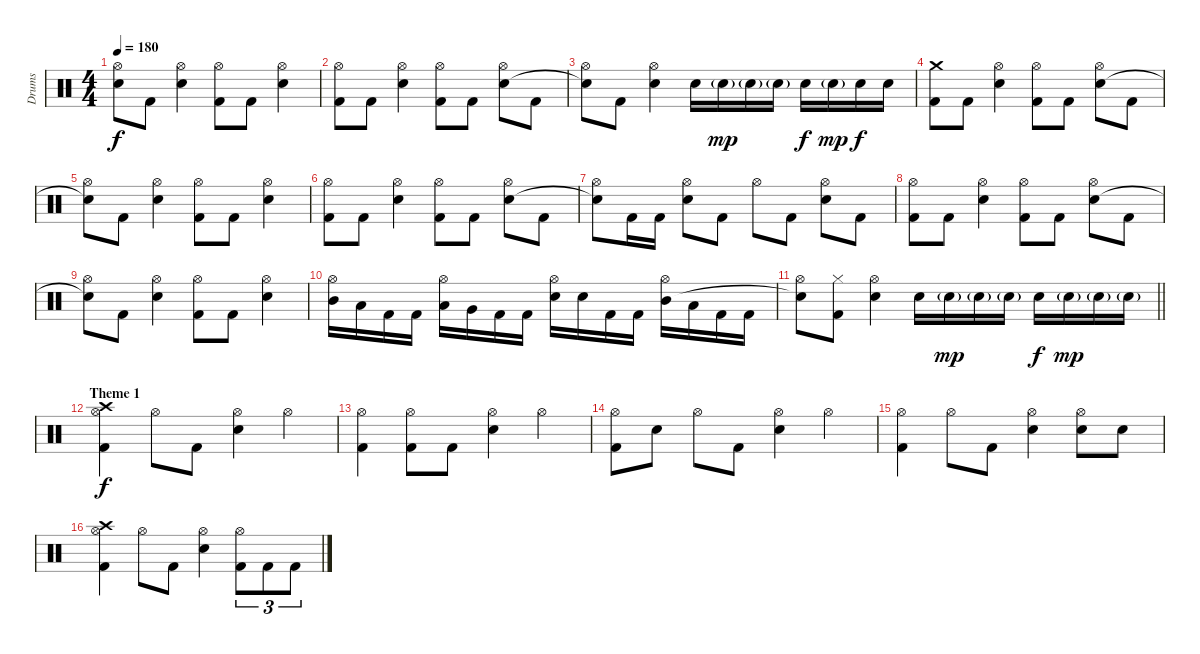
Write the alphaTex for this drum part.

\track ("Drums" "Drums") {instrument percussion}
\staff {score}
\articulation defaults
\ts (4 4)
\tempo 180
\clef neutral
\ks c
("Hi-Hat (open)" "Snare (hit)"{t}).8{dy f} "Kick (hit) 2".8 ("Hi-Hat (open)" "Snare (hit) 2").4 ("Hi-Hat (open)" "Kick (hit) 2").8 "Kick (hit) 2".8 ("Hi-Hat (open)" "Snare (hit) 2").4 |
("Hi-Hat (open)" "Kick (hit) 2").8 "Kick (hit) 2".8 ("Hi-Hat (open)" "Snare (hit) 2").4 ("Hi-Hat (open)" "Kick (hit) 2").8 "Kick (hit) 2".8 ("Hi-Hat (open)" "Snare (hit) 2").8 "Kick (hit) 2".8 |
("Hi-Hat (open)" "Snare (hit)"{t}).8 "Kick (hit) 2".8 ("Hi-Hat (open)" "Snare (hit) 2").4 "Snare (hit) 2".16 "Snare (hit) 2"{g}.16{dy mp} "Snare (hit) 2"{g}.16 "Snare (hit) 2"{g}.16 "Snare (hit) 2".16{dy f} "Snare (hit) 2"{g}.16{dy mp} "Snare (hit) 2".16{dy f} "Snare (hit) 2".16 |
("Crash medium (hit)" "Kick (hit) 2").8 "Kick (hit) 2".8 ("Hi-Hat (open)" "Snare (hit) 2").4 ("Hi-Hat (open)" "Kick (hit) 2").8 "Kick (hit) 2".8 ("Hi-Hat (open)" "Snare (hit) 2").8 "Kick (hit) 2".8 |
("Hi-Hat (open)" "Snare (hit)"{t}).8 "Kick (hit) 2".8 ("Hi-Hat (open)" "Snare (hit) 2").4 ("Hi-Hat (open)" "Kick (hit) 2").8 "Kick (hit) 2".8 ("Hi-Hat (open)" "Snare (hit) 2").4 |
("Hi-Hat (open)" "Kick (hit) 2").8 "Kick (hit) 2".8 ("Hi-Hat (open)" "Snare (hit) 2").4 ("Hi-Hat (open)" "Kick (hit) 2").8 "Kick (hit) 2".8 ("Hi-Hat (open)" "Snare (hit) 2").8 "Kick (hit) 2".8 |
("Hi-Hat (open)" "Snare (hit)"{t}).8 "Kick (hit) 2".16 "Kick (hit) 2".16 ("Hi-Hat (open)" "Snare (hit) 2").8 "Kick (hit) 2".8 "Hi-Hat (open)".8 "Kick (hit) 2".8 ("Hi-Hat (open)" "Snare (hit) 2").8 "Kick (hit) 2".8 |
("Hi-Hat (open)" "Kick (hit) 2").8 "Kick (hit) 2".8 ("Hi-Hat (open)" "Snare (hit) 2").4 ("Hi-Hat (open)" "Kick (hit) 2").8 "Kick (hit) 2".8 ("Hi-Hat (open)" "Snare (hit) 2").8 "Kick (hit) 2".8 |
("Hi-Hat (open)" "Snare (hit)"{t}).8 "Kick (hit) 2".8 ("Hi-Hat (open)" "Snare (hit) 2").4 ("Hi-Hat (open)" "Kick (hit) 2").8 "Kick (hit) 2".8 ("Hi-Hat (open)" "Snare (hit) 2").4 |
("Hi-Hat (open)" "Mid Tom (hit)").16 "Low Tom (hit)".16 "Kick (hit) 2".16 "Kick (hit) 2".16 ("Hi-Hat (open)" "Low Tom (hit)").16 "Very Low Tom (hit)".16 "Kick (hit) 2".16 "Kick (hit) 2".16 ("Hi-Hat (open)" "Snare (hit) 2").16 "Snare (hit) 2".16 "Kick (hit) 2".16 "Kick (hit) 2".16 ("Hi-Hat (open)" "Mid Tom (hit)").16 "Low Tom (hit)".16 "Kick (hit) 2".16 "Kick (hit) 2".16 |
\barLineRight lightlight
("Hi-Hat (open)" "Snare (hit)"{t}).8 ("Hi-Hat (closed)" "Kick (hit) 2").8 ("Hi-Hat (open)" "Snare (hit) 2").4 "Snare (hit) 2".16 "Snare (hit) 2"{g}.16{dy mp} "Snare (hit) 2"{g}.16 "Snare (hit) 2"{g}.16 "Snare (hit) 2".16{dy f} "Snare (hit) 2"{g}.16{dy mp} "Snare (hit) 2"{g}.16 "Snare (hit) 2"{g}.16 |
\section ("" "Theme 1")
("Hi-Hat (open)" "Crash high (hit)" "Kick (hit) 2").4{dy f} "Hi-Hat (open)".8 "Kick (hit) 2".8 ("Hi-Hat (open)" "Snare (hit) 2").4 "Hi-Hat (open)".4 |
("Hi-Hat (open)" "Kick (hit) 2").4 ("Hi-Hat (open)" "Kick (hit) 2").8 "Kick (hit) 2".8 ("Hi-Hat (open)" "Snare (hit) 2").4 "Hi-Hat (open)".4 |
("Hi-Hat (open)" "Kick (hit) 2").8 "Snare (hit) 2".8 "Hi-Hat (open)".8 "Kick (hit) 2".8 ("Hi-Hat (open)" "Snare (hit) 2").4 "Hi-Hat (open)".4 |
("Hi-Hat (open)" "Kick (hit) 2").4 "Hi-Hat (open)".8 "Kick (hit) 2".8 ("Hi-Hat (open)" "Snare (hit) 2").4 ("Hi-Hat (open)" "Snare (hit) 2").8 "Snare (hit) 2".8 |
("Hi-Hat (open)" "Crash high (hit)" "Kick (hit) 2").4 "Hi-Hat (open)".8 "Kick (hit) 2".8 ("Hi-Hat (open)" "Snare (hit) 2").4 ("Hi-Hat (open)" "Kick (hit) 2").8{tu (3 2)} "Kick (hit) 2".8{tu (3 2)} "Kick (hit) 2".8{tu (3 2)}
